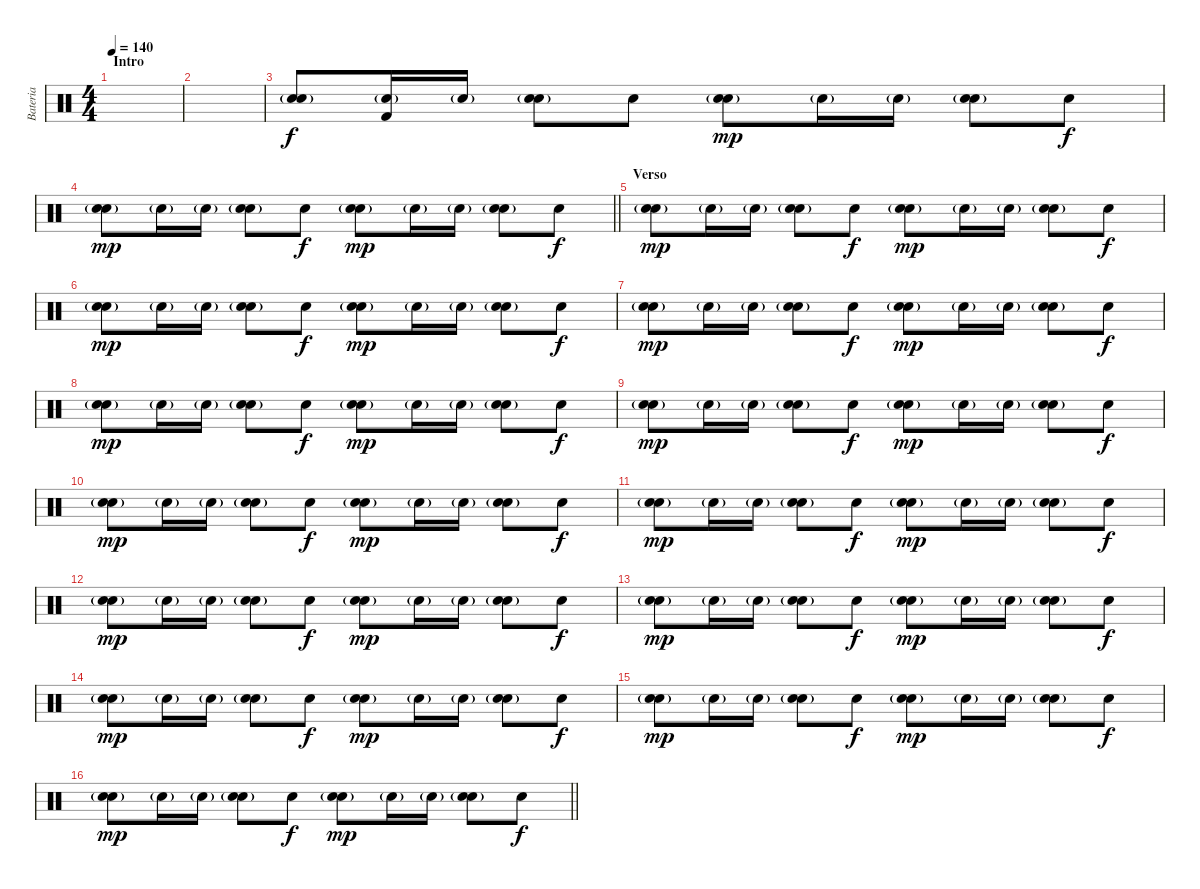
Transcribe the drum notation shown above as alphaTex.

\track ("Bateria" "Bateria") {instrument percussion}
\staff {score}
\articulation defaults
\ts (4 4)
\section ("" "Intro")
\tempo 140
\clef neutral
\ks c
|
|
("Snare (hit) 2" "Electric Snare (hit)"{g}).8 ("Kick (hit) 2" "Electric Snare (hit)"{g}).16 "Electric Snare (hit)"{g}.16 ("Snare (hit) 2" "Electric Snare (hit)"{g}).8 "Electric Snare (hit)".8{dy f} ("Snare (hit) 2" "Electric Snare (hit)"{g}).8{dy mp} "Electric Snare (hit)"{g}.16 "Electric Snare (hit)"{g}.16 ("Snare (hit) 2" "Electric Snare (hit)"{g}).8 "Electric Snare (hit)".8{dy f} |
\barLineRight lightlight
("Snare (hit) 2" "Electric Snare (hit)"{g}).8{dy mp} "Electric Snare (hit)"{g}.16 "Electric Snare (hit)"{g}.16 ("Snare (hit) 2" "Electric Snare (hit)"{g}).8 "Electric Snare (hit)".8{dy f} ("Snare (hit) 2" "Electric Snare (hit)"{g}).8{dy mp} "Electric Snare (hit)"{g}.16 "Electric Snare (hit)"{g}.16 ("Snare (hit) 2" "Electric Snare (hit)"{g}).8 "Electric Snare (hit)".8{dy f} |
\section ("" "Verso")
("Snare (hit) 2" "Electric Snare (hit)"{g}).8{dy mp} "Electric Snare (hit)"{g}.16 "Electric Snare (hit)"{g}.16 ("Snare (hit) 2" "Electric Snare (hit)"{g}).8 "Electric Snare (hit)".8{dy f} ("Snare (hit) 2" "Electric Snare (hit)"{g}).8{dy mp} "Electric Snare (hit)"{g}.16 "Electric Snare (hit)"{g}.16 ("Snare (hit) 2" "Electric Snare (hit)"{g}).8 "Electric Snare (hit)".8{dy f} |
("Snare (hit) 2" "Electric Snare (hit)"{g}).8{dy mp} "Electric Snare (hit)"{g}.16 "Electric Snare (hit)"{g}.16 ("Snare (hit) 2" "Electric Snare (hit)"{g}).8 "Electric Snare (hit)".8{dy f} ("Snare (hit) 2" "Electric Snare (hit)"{g}).8{dy mp} "Electric Snare (hit)"{g}.16 "Electric Snare (hit)"{g}.16 ("Snare (hit) 2" "Electric Snare (hit)"{g}).8 "Electric Snare (hit)".8{dy f} |
("Snare (hit) 2" "Electric Snare (hit)"{g}).8{dy mp} "Electric Snare (hit)"{g}.16 "Electric Snare (hit)"{g}.16 ("Snare (hit) 2" "Electric Snare (hit)"{g}).8 "Electric Snare (hit)".8{dy f} ("Snare (hit) 2" "Electric Snare (hit)"{g}).8{dy mp} "Electric Snare (hit)"{g}.16 "Electric Snare (hit)"{g}.16 ("Snare (hit) 2" "Electric Snare (hit)"{g}).8 "Electric Snare (hit)".8{dy f} |
("Snare (hit) 2" "Electric Snare (hit)"{g}).8{dy mp} "Electric Snare (hit)"{g}.16 "Electric Snare (hit)"{g}.16 ("Snare (hit) 2" "Electric Snare (hit)"{g}).8 "Electric Snare (hit)".8{dy f} ("Snare (hit) 2" "Electric Snare (hit)"{g}).8{dy mp} "Electric Snare (hit)"{g}.16 "Electric Snare (hit)"{g}.16 ("Snare (hit) 2" "Electric Snare (hit)"{g}).8 "Electric Snare (hit)".8{dy f} |
("Snare (hit) 2" "Electric Snare (hit)"{g}).8{dy mp} "Electric Snare (hit)"{g}.16 "Electric Snare (hit)"{g}.16 ("Snare (hit) 2" "Electric Snare (hit)"{g}).8 "Electric Snare (hit)".8{dy f} ("Snare (hit) 2" "Electric Snare (hit)"{g}).8{dy mp} "Electric Snare (hit)"{g}.16 "Electric Snare (hit)"{g}.16 ("Snare (hit) 2" "Electric Snare (hit)"{g}).8 "Electric Snare (hit)".8{dy f} |
("Snare (hit) 2" "Electric Snare (hit)"{g}).8{dy mp} "Electric Snare (hit)"{g}.16 "Electric Snare (hit)"{g}.16 ("Snare (hit) 2" "Electric Snare (hit)"{g}).8 "Electric Snare (hit)".8{dy f} ("Snare (hit) 2" "Electric Snare (hit)"{g}).8{dy mp} "Electric Snare (hit)"{g}.16 "Electric Snare (hit)"{g}.16 ("Snare (hit) 2" "Electric Snare (hit)"{g}).8 "Electric Snare (hit)".8{dy f} |
("Snare (hit) 2" "Electric Snare (hit)"{g}).8{dy mp} "Electric Snare (hit)"{g}.16 "Electric Snare (hit)"{g}.16 ("Snare (hit) 2" "Electric Snare (hit)"{g}).8 "Electric Snare (hit)".8{dy f} ("Snare (hit) 2" "Electric Snare (hit)"{g}).8{dy mp} "Electric Snare (hit)"{g}.16 "Electric Snare (hit)"{g}.16 ("Snare (hit) 2" "Electric Snare (hit)"{g}).8 "Electric Snare (hit)".8{dy f} |
("Snare (hit) 2" "Electric Snare (hit)"{g}).8{dy mp} "Electric Snare (hit)"{g}.16 "Electric Snare (hit)"{g}.16 ("Snare (hit) 2" "Electric Snare (hit)"{g}).8 "Electric Snare (hit)".8{dy f} ("Snare (hit) 2" "Electric Snare (hit)"{g}).8{dy mp} "Electric Snare (hit)"{g}.16 "Electric Snare (hit)"{g}.16 ("Snare (hit) 2" "Electric Snare (hit)"{g}).8 "Electric Snare (hit)".8{dy f} |
("Snare (hit) 2" "Electric Snare (hit)"{g}).8{dy mp} "Electric Snare (hit)"{g}.16 "Electric Snare (hit)"{g}.16 ("Snare (hit) 2" "Electric Snare (hit)"{g}).8 "Electric Snare (hit)".8{dy f} ("Snare (hit) 2" "Electric Snare (hit)"{g}).8{dy mp} "Electric Snare (hit)"{g}.16 "Electric Snare (hit)"{g}.16 ("Snare (hit) 2" "Electric Snare (hit)"{g}).8 "Electric Snare (hit)".8{dy f} |
("Snare (hit) 2" "Electric Snare (hit)"{g}).8{dy mp} "Electric Snare (hit)"{g}.16 "Electric Snare (hit)"{g}.16 ("Snare (hit) 2" "Electric Snare (hit)"{g}).8 "Electric Snare (hit)".8{dy f} ("Snare (hit) 2" "Electric Snare (hit)"{g}).8{dy mp} "Electric Snare (hit)"{g}.16 "Electric Snare (hit)"{g}.16 ("Snare (hit) 2" "Electric Snare (hit)"{g}).8 "Electric Snare (hit)".8{dy f} |
("Snare (hit) 2" "Electric Snare (hit)"{g}).8{dy mp} "Electric Snare (hit)"{g}.16 "Electric Snare (hit)"{g}.16 ("Snare (hit) 2" "Electric Snare (hit)"{g}).8 "Electric Snare (hit)".8{dy f} ("Snare (hit) 2" "Electric Snare (hit)"{g}).8{dy mp} "Electric Snare (hit)"{g}.16 "Electric Snare (hit)"{g}.16 ("Snare (hit) 2" "Electric Snare (hit)"{g}).8 "Electric Snare (hit)".8{dy f} |
\barLineRight lightlight
("Snare (hit) 2" "Electric Snare (hit)"{g}).8{dy mp} "Electric Snare (hit)"{g}.16 "Electric Snare (hit)"{g}.16 ("Snare (hit) 2" "Electric Snare (hit)"{g}).8 "Electric Snare (hit)".8{dy f} ("Snare (hit) 2" "Electric Snare (hit)"{g}).8{dy mp} "Electric Snare (hit)"{g}.16 "Electric Snare (hit)"{g}.16 ("Snare (hit) 2" "Electric Snare (hit)"{g}).8 "Electric Snare (hit)".8{dy f}
